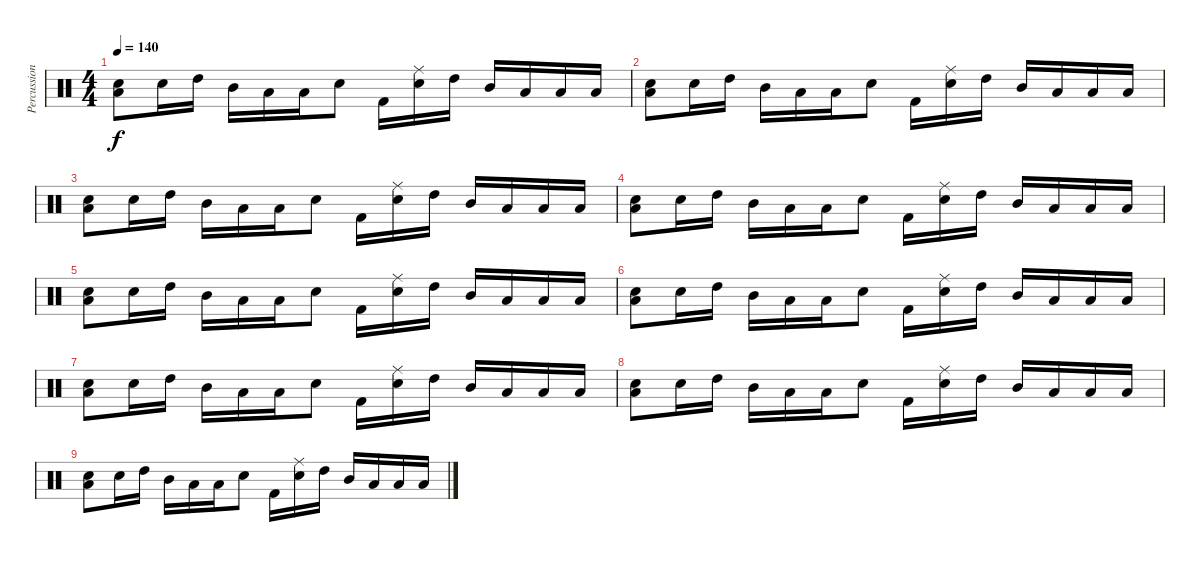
\track ("Percussion" "Percussion") {instrument percussion}
\staff {score}
\articulation defaults
\ts (4 4)
\tempo 140
\clef neutral
\ks c
("Low Tom (hit)" "Electric Snare (hit)").8{dy f} "Snare (hit) 2".16 "High Tom (hit)".16 "Mid Tom (hit)".16 "Low Tom (hit)".16 "Low Floor Tom (hit)".16 "Snare (hit) 2".8 "Kick (hit) 2".16 ("Ride (middle)" "Snare (hit) 2").16 "High Tom (hit)".16 "Mid Tom (hit)".16 "Low Tom (hit)".16 "Low Floor Tom (hit)".16 "Low Floor Tom (hit)".16 |
("Low Tom (hit)" "Electric Snare (hit)").8 "Snare (hit) 2".16 "High Tom (hit)".16 "Mid Tom (hit)".16 "Low Tom (hit)".16 "Low Floor Tom (hit)".16 "Snare (hit) 2".8 "Kick (hit) 2".16 ("Ride (middle)" "Snare (hit) 2").16 "High Tom (hit)".16 "Mid Tom (hit)".16 "Low Tom (hit)".16 "Low Floor Tom (hit)".16 "Low Floor Tom (hit)".16 |
("Low Tom (hit)" "Electric Snare (hit)").8 "Snare (hit) 2".16 "High Tom (hit)".16 "Mid Tom (hit)".16 "Low Tom (hit)".16 "Low Floor Tom (hit)".16 "Snare (hit) 2".8 "Kick (hit) 2".16 ("Ride (middle)" "Snare (hit) 2").16 "High Tom (hit)".16 "Mid Tom (hit)".16 "Low Tom (hit)".16 "Low Floor Tom (hit)".16 "Low Floor Tom (hit)".16 |
("Low Tom (hit)" "Electric Snare (hit)").8 "Snare (hit) 2".16 "High Tom (hit)".16 "Mid Tom (hit)".16 "Low Tom (hit)".16 "Low Floor Tom (hit)".16 "Snare (hit) 2".8 "Kick (hit) 2".16 ("Ride (middle)" "Snare (hit) 2").16 "High Tom (hit)".16 "Mid Tom (hit)".16 "Low Tom (hit)".16 "Low Floor Tom (hit)".16 "Low Floor Tom (hit)".16 |
("Low Tom (hit)" "Electric Snare (hit)").8 "Snare (hit) 2".16 "High Tom (hit)".16 "Mid Tom (hit)".16 "Low Tom (hit)".16 "Low Floor Tom (hit)".16 "Snare (hit) 2".8 "Kick (hit) 2".16 ("Ride (middle)" "Snare (hit) 2").16 "High Tom (hit)".16 "Mid Tom (hit)".16 "Low Tom (hit)".16 "Low Floor Tom (hit)".16 "Low Floor Tom (hit)".16 |
("Low Tom (hit)" "Electric Snare (hit)").8 "Snare (hit) 2".16 "High Tom (hit)".16 "Mid Tom (hit)".16 "Low Tom (hit)".16 "Low Floor Tom (hit)".16 "Snare (hit) 2".8 "Kick (hit) 2".16 ("Ride (middle)" "Snare (hit) 2").16 "High Tom (hit)".16 "Mid Tom (hit)".16 "Low Tom (hit)".16 "Low Floor Tom (hit)".16 "Low Floor Tom (hit)".16 |
("Low Tom (hit)" "Electric Snare (hit)").8 "Snare (hit) 2".16 "High Tom (hit)".16 "Mid Tom (hit)".16 "Low Tom (hit)".16 "Low Floor Tom (hit)".16 "Snare (hit) 2".8 "Kick (hit) 2".16 ("Ride (middle)" "Snare (hit) 2").16 "High Tom (hit)".16 "Mid Tom (hit)".16 "Low Tom (hit)".16 "Low Floor Tom (hit)".16 "Low Floor Tom (hit)".16 |
("Low Tom (hit)" "Electric Snare (hit)").8 "Snare (hit) 2".16 "High Tom (hit)".16 "Mid Tom (hit)".16 "Low Tom (hit)".16 "Low Floor Tom (hit)".16 "Snare (hit) 2".8 "Kick (hit) 2".16 ("Ride (middle)" "Snare (hit) 2").16 "High Tom (hit)".16 "Mid Tom (hit)".16 "Low Tom (hit)".16 "Low Floor Tom (hit)".16 "Low Floor Tom (hit)".16 |
("Low Tom (hit)" "Electric Snare (hit)").8 "Snare (hit) 2".16 "High Tom (hit)".16 "Mid Tom (hit)".16 "Low Tom (hit)".16 "Low Floor Tom (hit)".16 "Snare (hit) 2".8 "Kick (hit) 2".16 ("Ride (middle)" "Snare (hit) 2").16 "High Tom (hit)".16 "Mid Tom (hit)".16 "Low Tom (hit)".16 "Low Floor Tom (hit)".16 "Low Floor Tom (hit)".16
